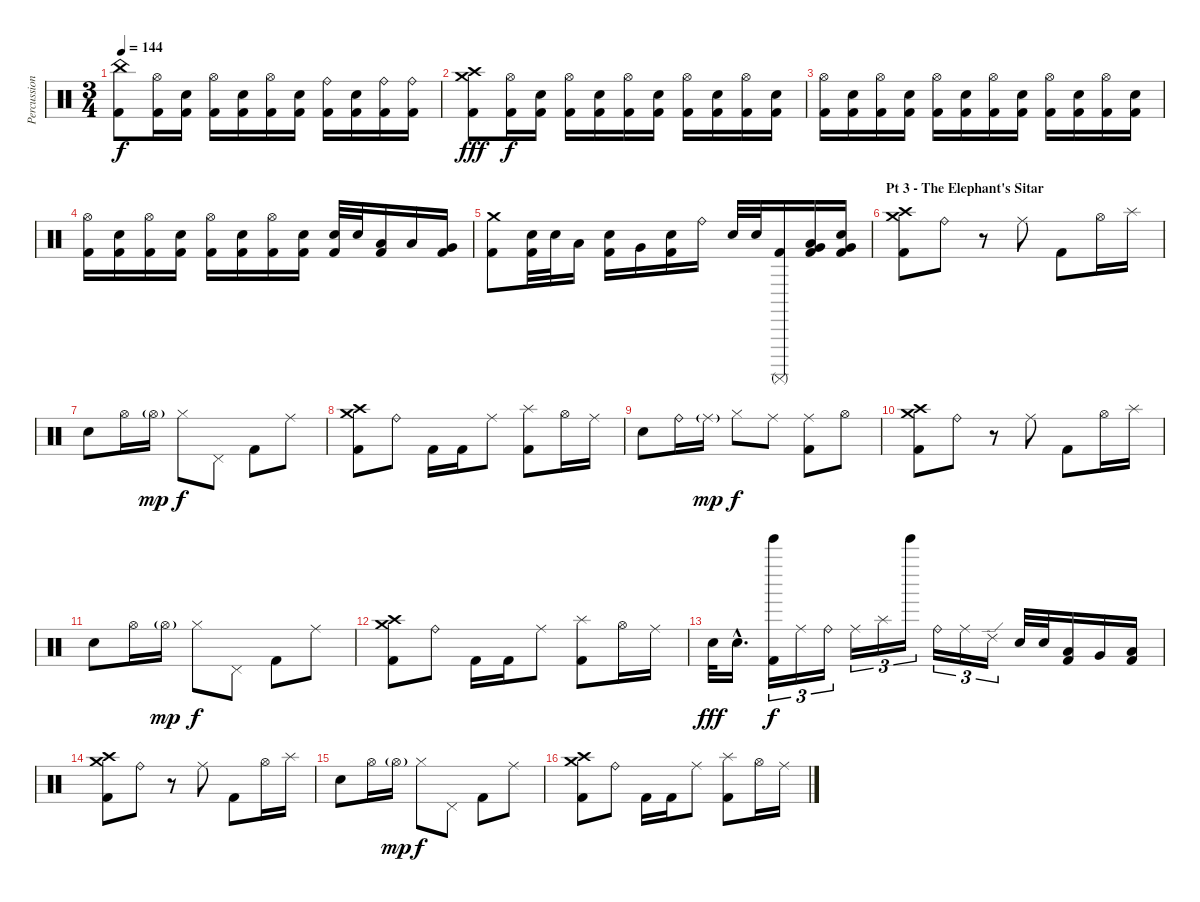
\track ("Percussion" "Percussion") {instrument percussion}
\staff {score}
\articulation defaults
\ts (3 4)
\tempo 144
\clef neutral
\ks c
("China (hit)" "Kick (hit) 2").8{dy f} ("Hi-Hat (open)" "Kick (hit) 2").16 ("Electric Snare (hit)" "Kick (hit) 2").16 ("Hi-Hat (open)" "Kick (hit) 2").16 ("Electric Snare (hit)" "Kick (hit) 2").16 ("Hi-Hat (open)" "Kick (hit) 2").16 ("Electric Snare (hit)" "Kick (hit) 2").16 ("Ride (bell)" "Kick (hit) 2").16 ("Electric Snare (hit)" "Kick (hit) 2").16 ("Ride (bell)" "Kick (hit) 2").16 ("Ride (bell)" "Kick (hit) 2").16 |
("Crash high (hit)" "Crash medium (hit)" "Kick (hit) 2").8{dy fff} ("Hi-Hat (open)" "Kick (hit) 2").16{dy f} ("Electric Snare (hit)" "Kick (hit) 2").16 ("Hi-Hat (open)" "Kick (hit) 2").16 ("Electric Snare (hit)" "Kick (hit) 2").16 ("Hi-Hat (open)" "Kick (hit) 2").16 ("Electric Snare (hit)" "Kick (hit) 2").16 ("Hi-Hat (open)" "Kick (hit) 2").16 ("Electric Snare (hit)" "Kick (hit) 2").16 ("Hi-Hat (open)" "Kick (hit) 2").16 ("Electric Snare (hit)" "Kick (hit) 2").16 |
("Hi-Hat (open)" "Kick (hit) 2").16 ("Electric Snare (hit)" "Kick (hit) 2").16 ("Hi-Hat (open)" "Kick (hit) 2").16 ("Electric Snare (hit)" "Kick (hit) 2").16 ("Hi-Hat (open)" "Kick (hit) 2").16 ("Electric Snare (hit)" "Kick (hit) 2").16 ("Hi-Hat (open)" "Kick (hit) 2").16 ("Electric Snare (hit)" "Kick (hit) 2").16 ("Hi-Hat (open)" "Kick (hit) 2").16 ("Electric Snare (hit)" "Kick (hit) 2").16 ("Hi-Hat (open)" "Kick (hit) 2").16 ("Electric Snare (hit)" "Kick (hit) 2").16 |
("Hi-Hat (open)" "Kick (hit) 2").16 ("Electric Snare (hit)" "Kick (hit) 2").16 ("Hi-Hat (open)" "Kick (hit) 2").16 ("Electric Snare (hit)" "Kick (hit) 2").16 ("Hi-Hat (open)" "Kick (hit) 2").16 ("Electric Snare (hit)" "Kick (hit) 2").16 ("Hi-Hat (open)" "Kick (hit) 2").16 ("Electric Snare (hit)" "Kick (hit) 2").16 ("Electric Snare (hit)" "Kick (hit) 2").32 "Electric Snare (hit)".32 ("Low Tom (hit)" "Kick (hit) 2").16 "Low Tom (hit)".16 ("Very Low Tom (hit)" "Kick (hit) 2").16 |
("Crash medium (hit)" "Kick (hit) 2").8 ("Electric Snare (hit)" "Kick (hit) 2").32 "Electric Snare (hit)".32 "Low Tom (hit)".16 ("Electric Snare (hit)" "Kick (hit) 2").16 "Very Low Tom (hit)".16 ("Electric Snare (hit)" "Kick (hit) 2").16 "Ride (bell)".16 "Electric Snare (hit)".32 "Electric Snare (hit)".32 ("Surdo (mute)" "Kick (hit) 2").16 ("Low Tom (hit)" "Very Low Tom (hit)" "Kick (hit) 2").16 ("Very Low Tom (hit)" "Electric Snare (hit)" "Kick (hit) 2").16 |
\section ("" "Pt 3 - The Elephant's Sitar")
("Crash high (hit)" "Crash medium (hit)" "Kick (hit) 2").8 "Ride (bell)".8 r.8 "Ride (middle)".8 "Kick (hit) 2".8 "Hi-Hat (open)".16 "Splash (hit)".16 |
"Electric Snare (hit)".8 "Hi-Hat (open)".16 "Hi-Hat (open)"{g}.16{dy mp} "Hi-Hat (closed)".8{dy f} "Pedal Hi-Hat (hit)".8 "Kick (hit) 2".8 "Ride (middle)".8 |
("Crash high (hit)" "Crash medium (hit)" "Kick (hit) 2").8 "Ride (bell)".8 "Kick (hit) 2".16 "Kick (hit) 2".16 "Ride (middle)".8 ("Splash (hit)" "Kick (hit) 2").8 "Hi-Hat (open)".16 "Ride (middle)".16 |
"Electric Snare (hit)".8 "Ride (bell)".16 "Ride (middle)"{g}.16{dy mp} "Hi-Hat (closed)".8{dy f} "Ride (middle)".8 ("Ride (middle)" "Kick (hit) 2").8 "Hi-Hat (open)".8 |
("Crash high (hit)" "Crash medium (hit)" "Kick (hit) 2").8 "Ride (bell)".8 r.8 "Ride (middle)".8 "Kick (hit) 2".8 "Hi-Hat (open)".16 "Splash (hit)".16 |
"Electric Snare (hit)".8 "Hi-Hat (open)".16 "Hi-Hat (open)"{g}.16{dy mp} "Hi-Hat (closed)".8{dy f} "Pedal Hi-Hat (hit)".8 "Kick (hit) 2".8 "Ride (middle)".8 |
("Crash high (hit)" "Crash medium (hit)" "Kick (hit) 2").8 "Ride (bell)".8 "Kick (hit) 2".16 "Kick (hit) 2".16 "Ride (middle)".8 ("Splash (hit)" "Kick (hit) 2").8 "Hi-Hat (open)".16 "Ride (middle)".16 |
"Electric Snare (hit)".32{dy fff} "Electric Snare (hit)"{hac}.16{d} ("Tinkle Bell (hit)" "Kick (hit) 2").16{tu (3 2) dy f} "Ride (middle)".16{tu (3 2)} "Ride (bell)".16{tu (3 2)} "Ride (middle)".16{tu (3 2)} "Splash (hit)".16{tu (3 2)} "Tinkle Bell (hit)".16{tu (3 2)} "Ride (bell)".16{tu (3 2)} "Ride (middle)".16{tu (3 2)} "Ride (edge) 2".16{tu (3 2)} "Electric Snare (hit)".32 "Electric Snare (hit)".32 ("Low Tom (hit)" "Kick (hit) 2").16 "Very Low Tom (hit)".16 ("Low Tom (hit)" "Kick (hit) 2").16 |
("Crash high (hit)" "Crash medium (hit)" "Kick (hit) 2").8 "Ride (bell)".8 r.8 "Ride (middle)".8 "Kick (hit) 2".8 "Hi-Hat (open)".16 "Splash (hit)".16 |
"Electric Snare (hit)".8 "Hi-Hat (open)".16 "Hi-Hat (open)"{g}.16{dy mp} "Hi-Hat (closed)".8{dy f} "Pedal Hi-Hat (hit)".8 "Kick (hit) 2".8 "Ride (middle)".8 |
("Crash high (hit)" "Crash medium (hit)" "Kick (hit) 2").8 "Ride (bell)".8 "Kick (hit) 2".16 "Kick (hit) 2".16 "Ride (middle)".8 ("Splash (hit)" "Kick (hit) 2").8 "Hi-Hat (open)".16 "Ride (middle)".16
